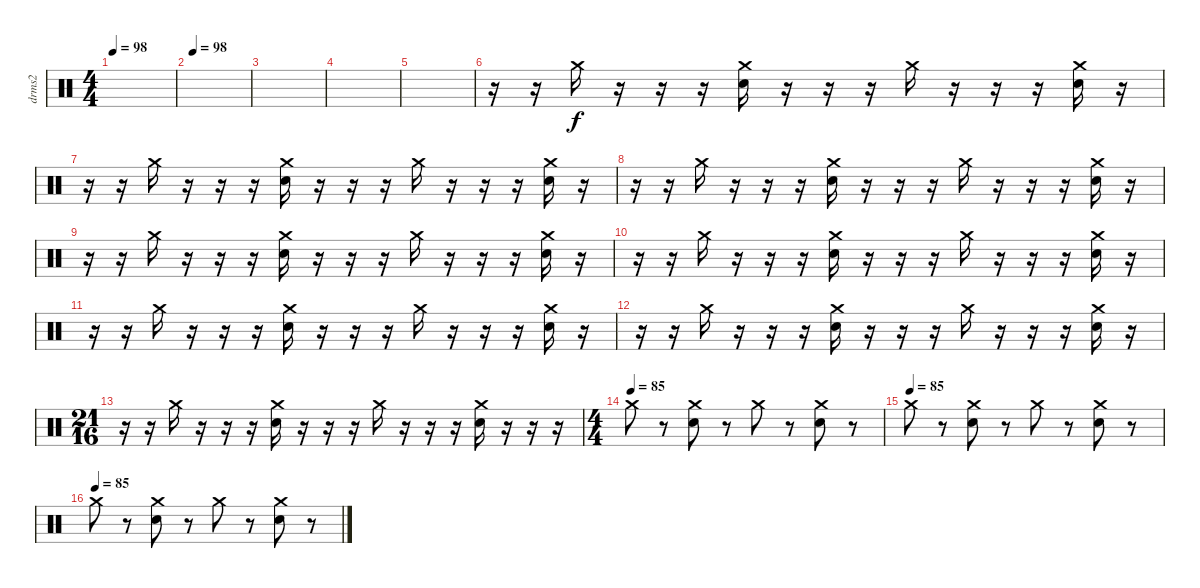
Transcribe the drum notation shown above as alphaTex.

\track ("drms2" "drms2") {instrument percussion}
\staff {score}
\articulation defaults
\ts (4 4)
\tempo 98
\clef neutral
\ks c
|
\tempo (98 0.0625)
|
|
|
|
r.16 r.16 "Crash medium (hit)".16 r.16 r.16 r.16 ("Crash medium (hit)" "Electric Snare (hit)").16 r.16 r.16 r.16 "Crash medium (hit)".16 r.16 r.16 r.16 ("Crash medium (hit)" "Electric Snare (hit)").16 r.16 |
r.16 r.16 "Crash medium (hit)".16 r.16 r.16 r.16 ("Crash medium (hit)" "Electric Snare (hit)").16 r.16 r.16 r.16 "Crash medium (hit)".16 r.16 r.16 r.16 ("Crash medium (hit)" "Electric Snare (hit)").16 r.16 |
r.16 r.16 "Crash medium (hit)".16 r.16 r.16 r.16 ("Crash medium (hit)" "Electric Snare (hit)").16 r.16 r.16 r.16 "Crash medium (hit)".16 r.16 r.16 r.16 ("Crash medium (hit)" "Electric Snare (hit)").16 r.16 |
r.16 r.16 "Crash medium (hit)".16 r.16 r.16 r.16 ("Crash medium (hit)" "Electric Snare (hit)").16 r.16 r.16 r.16 "Crash medium (hit)".16 r.16 r.16 r.16 ("Crash medium (hit)" "Electric Snare (hit)").16 r.16 |
r.16 r.16 "Crash medium (hit)".16 r.16 r.16 r.16 ("Crash medium (hit)" "Electric Snare (hit)").16 r.16 r.16 r.16 "Crash medium (hit)".16 r.16 r.16 r.16 ("Crash medium (hit)" "Electric Snare (hit)").16 r.16 |
r.16 r.16 "Crash medium (hit)".16 r.16 r.16 r.16 ("Crash medium (hit)" "Electric Snare (hit)").16 r.16 r.16 r.16 "Crash medium (hit)".16 r.16 r.16 r.16 ("Crash medium (hit)" "Electric Snare (hit)").16 r.16 |
r.16 r.16 "Crash medium (hit)".16 r.16 r.16 r.16 ("Crash medium (hit)" "Electric Snare (hit)").16 r.16 r.16 r.16 "Crash medium (hit)".16 r.16 r.16 r.16 ("Crash medium (hit)" "Electric Snare (hit)").16 r.16 |
\ts (21 16)
r.16 r.16 "Crash medium (hit)".16 r.16 r.16 r.16 ("Crash medium (hit)" "Electric Snare (hit)").16 r.16 r.16 r.16 "Crash medium (hit)".16 r.16 r.16 r.16 ("Crash medium (hit)" "Electric Snare (hit)").16 r.16 r.16 r.16 |
\ts (4 4)
\tempo (85)
"Crash medium (hit)".8 r.8 ("Crash medium (hit)" "Electric Snare (hit)").8 r.8 "Crash medium (hit)".8 r.8 ("Crash medium (hit)" "Electric Snare (hit)").8 r.8 |
\tempo (85)
"Crash medium (hit)".8 r.8 ("Crash medium (hit)" "Electric Snare (hit)").8 r.8 "Crash medium (hit)".8 r.8 ("Crash medium (hit)" "Electric Snare (hit)").8 r.8 |
\tempo (85)
"Crash medium (hit)".8 r.8 ("Crash medium (hit)" "Electric Snare (hit)").8 r.8 "Crash medium (hit)".8 r.8 ("Crash medium (hit)" "Electric Snare (hit)").8 r.8
